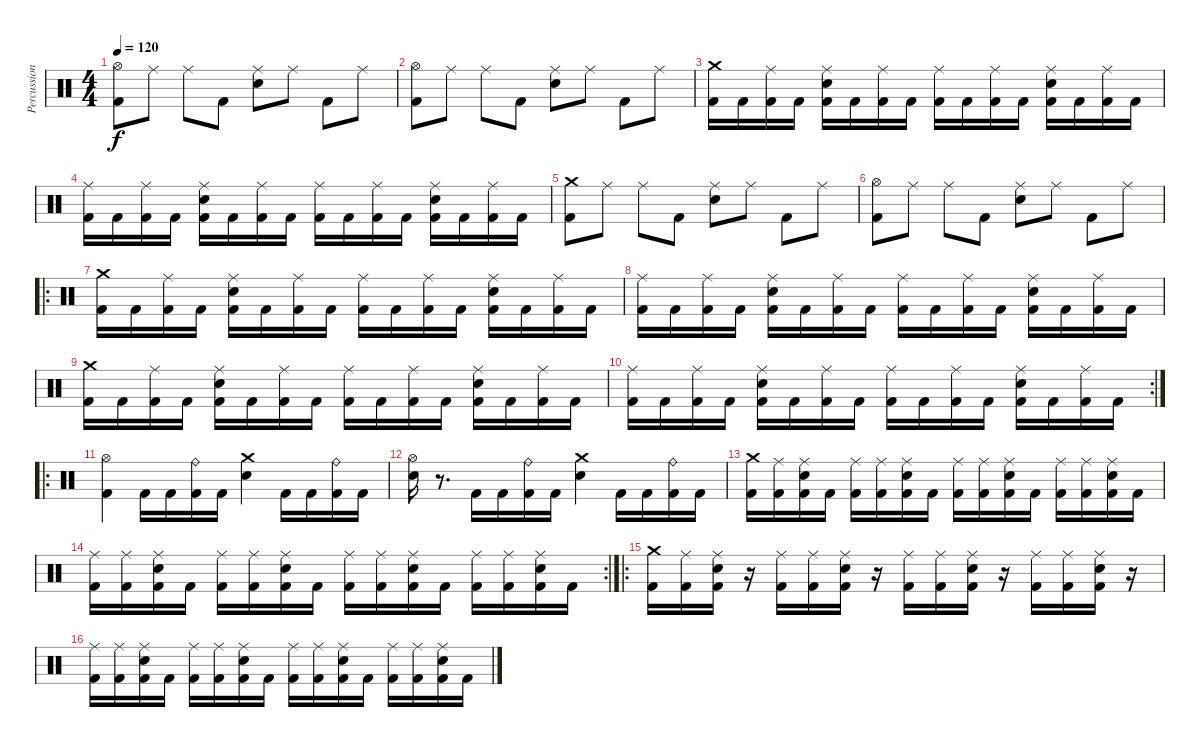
\track ("Percussions" "Percussion") {instrument percussion}
\staff {score}
\articulation defaults
\ts (4 4)
\tempo 120
\clef neutral
\ks c
("Kick (hit) 2" "Hi-Hat (open)").8{dy f} "Ride (middle)".8 "Ride (middle)".8 "Kick (hit) 2".8 ("Ride (middle)" "Electric Snare (hit)").8 "Ride (middle)".8 "Kick (hit) 2".8 "Ride (middle)".8 |
("Kick (hit) 2" "Hi-Hat (open)").8 "Ride (middle)".8 "Ride (middle)".8 "Kick (hit) 2".8 ("Ride (middle)" "Electric Snare (hit)").8 "Ride (middle)".8 "Kick (hit) 2".8 "Ride (middle)".8 |
("Kick (hit) 2" "Crash medium (hit)").16 "Kick (hit) 2".16 ("Kick (hit) 2" "Ride (middle)").16 "Kick (hit) 2".16 ("Kick (hit) 2" "Electric Snare (hit)" "Ride (middle)").16 "Kick (hit) 2".16 ("Kick (hit) 2" "Ride (middle)").16 "Kick (hit) 2".16 ("Kick (hit) 2" "Ride (middle)").16 "Kick (hit) 2".16 ("Kick (hit) 2" "Ride (middle)").16 "Kick (hit) 2".16 ("Kick (hit) 2" "Electric Snare (hit)" "Ride (middle)").16 "Kick (hit) 2".16 ("Kick (hit) 2" "Ride (middle)").16 "Kick (hit) 2".16 |
("Kick (hit) 2" "Ride (middle)").16 "Kick (hit) 2".16 ("Kick (hit) 2" "Ride (middle)").16 "Kick (hit) 2".16 ("Kick (hit) 2" "Electric Snare (hit)" "Ride (middle)").16 "Kick (hit) 2".16 ("Kick (hit) 2" "Ride (middle)").16 "Kick (hit) 2".16 ("Kick (hit) 2" "Ride (middle)").16 "Kick (hit) 2".16 ("Kick (hit) 2" "Ride (middle)").16 "Kick (hit) 2".16 ("Kick (hit) 2" "Electric Snare (hit)" "Ride (middle)").16 "Kick (hit) 2".16 ("Kick (hit) 2" "Ride (middle)").16 "Kick (hit) 2".16 |
("Kick (hit) 2" "Crash medium (hit)").8 "Ride (middle)".8 "Ride (middle)".8 "Kick (hit) 2".8 ("Ride (middle)" "Electric Snare (hit)").8 "Ride (middle)".8 "Kick (hit) 2".8 "Ride (middle)".8 |
("Kick (hit) 2" "Hi-Hat (open)").8 "Ride (middle)".8 "Ride (middle)".8 "Kick (hit) 2".8 ("Ride (middle)" "Electric Snare (hit)").8 "Ride (middle)".8 "Kick (hit) 2".8 "Ride (middle)".8 |
\ro
("Kick (hit) 2" "Crash medium (hit)").16 "Kick (hit) 2".16 ("Kick (hit) 2" "Ride (middle)").16 "Kick (hit) 2".16 ("Kick (hit) 2" "Electric Snare (hit)" "Ride (middle)").16 "Kick (hit) 2".16 ("Kick (hit) 2" "Ride (middle)").16 "Kick (hit) 2".16 ("Kick (hit) 2" "Ride (middle)").16 "Kick (hit) 2".16 ("Kick (hit) 2" "Ride (middle)").16 "Kick (hit) 2".16 ("Kick (hit) 2" "Electric Snare (hit)" "Ride (middle)").16 "Kick (hit) 2".16 ("Kick (hit) 2" "Ride (middle)").16 "Kick (hit) 2".16 |
("Kick (hit) 2" "Ride (middle)").16 "Kick (hit) 2".16 ("Kick (hit) 2" "Ride (middle)").16 "Kick (hit) 2".16 ("Kick (hit) 2" "Electric Snare (hit)" "Ride (middle)").16 "Kick (hit) 2".16 ("Kick (hit) 2" "Ride (middle)").16 "Kick (hit) 2".16 ("Kick (hit) 2" "Ride (middle)").16 "Kick (hit) 2".16 ("Kick (hit) 2" "Ride (middle)").16 "Kick (hit) 2".16 ("Kick (hit) 2" "Electric Snare (hit)" "Ride (middle)").16 "Kick (hit) 2".16 ("Kick (hit) 2" "Ride (middle)").16 "Kick (hit) 2".16 |
("Kick (hit) 2" "Crash medium (hit)").16 "Kick (hit) 2".16 ("Kick (hit) 2" "Ride (middle)").16 "Kick (hit) 2".16 ("Kick (hit) 2" "Electric Snare (hit)" "Ride (middle)").16 "Kick (hit) 2".16 ("Kick (hit) 2" "Ride (middle)").16 "Kick (hit) 2".16 ("Kick (hit) 2" "Ride (middle)").16 "Kick (hit) 2".16 ("Kick (hit) 2" "Ride (middle)").16 "Kick (hit) 2".16 ("Kick (hit) 2" "Electric Snare (hit)" "Ride (middle)").16 "Kick (hit) 2".16 ("Kick (hit) 2" "Ride (middle)").16 "Kick (hit) 2".16 |
\rc 2
("Kick (hit) 2" "Ride (middle)").16 "Kick (hit) 2".16 ("Kick (hit) 2" "Ride (middle)").16 "Kick (hit) 2".16 ("Kick (hit) 2" "Electric Snare (hit)" "Ride (middle)").16 "Kick (hit) 2".16 ("Kick (hit) 2" "Ride (middle)").16 "Kick (hit) 2".16 ("Kick (hit) 2" "Ride (middle)").16 "Kick (hit) 2".16 ("Kick (hit) 2" "Ride (middle)").16 "Kick (hit) 2".16 ("Kick (hit) 2" "Electric Snare (hit)" "Ride (middle)").16 "Kick (hit) 2".16 ("Kick (hit) 2" "Ride (middle)").16 "Kick (hit) 2".16 |
\ro
("Kick (hit) 2" "Hi-Hat (open)").4 "Kick (hit) 2".16 "Kick (hit) 2".16 ("Kick (hit) 2" "Ride (bell)").16 "Kick (hit) 2".16 ("Electric Snare (hit)" "Crash medium (hit)").4 "Kick (hit) 2".16 "Kick (hit) 2".16 ("Kick (hit) 2" "Ride (bell)").16 "Kick (hit) 2".16 |
("Electric Snare (hit)" "Hi-Hat (open)").16 r.8{d} "Kick (hit) 2".16 "Kick (hit) 2".16 ("Kick (hit) 2" "Ride (bell)").16 "Kick (hit) 2".16 ("Electric Snare (hit)" "Crash medium (hit)").4 "Kick (hit) 2".16 "Kick (hit) 2".16 ("Kick (hit) 2" "Ride (bell)").16 "Kick (hit) 2".16 |
("Kick (hit) 2" "Crash medium (hit)").16 ("Kick (hit) 2" "Ride (middle)").16 ("Kick (hit) 2" "Electric Snare (hit)" "Ride (middle)").16 "Kick (hit) 2".16 ("Kick (hit) 2" "Ride (middle)").16 ("Kick (hit) 2" "Ride (middle)").16 ("Kick (hit) 2" "Electric Snare (hit)" "Ride (middle)").16 "Kick (hit) 2".16 ("Kick (hit) 2" "Ride (middle)").16 ("Kick (hit) 2" "Ride (middle)").16 ("Kick (hit) 2" "Electric Snare (hit)" "Ride (middle)").16 "Kick (hit) 2".16 ("Kick (hit) 2" "Ride (middle)").16 ("Kick (hit) 2" "Ride (middle)").16 ("Kick (hit) 2" "Electric Snare (hit)" "Ride (middle)").16 "Kick (hit) 2".16 |
\rc 2
("Kick (hit) 2" "Ride (middle)").16 ("Kick (hit) 2" "Ride (middle)").16 ("Kick (hit) 2" "Electric Snare (hit)" "Ride (middle)").16 "Kick (hit) 2".16 ("Kick (hit) 2" "Ride (middle)").16 ("Kick (hit) 2" "Ride (middle)").16 ("Kick (hit) 2" "Electric Snare (hit)" "Ride (middle)").16 "Kick (hit) 2".16 ("Kick (hit) 2" "Ride (middle)").16 ("Kick (hit) 2" "Ride (middle)").16 ("Kick (hit) 2" "Electric Snare (hit)" "Ride (middle)").16 "Kick (hit) 2".16 ("Kick (hit) 2" "Ride (middle)").16 ("Kick (hit) 2" "Ride (middle)").16 ("Kick (hit) 2" "Electric Snare (hit)" "Ride (middle)").16 "Kick (hit) 2".16 |
\ro
("Kick (hit) 2" "Crash medium (hit)").16 ("Kick (hit) 2" "Ride (middle)").16 ("Kick (hit) 2" "Electric Snare (hit)" "Ride (middle)").16 r.16 ("Kick (hit) 2" "Ride (middle)").16 ("Kick (hit) 2" "Ride (middle)").16 ("Kick (hit) 2" "Electric Snare (hit)" "Ride (middle)").16 r.16 ("Kick (hit) 2" "Ride (middle)").16 ("Kick (hit) 2" "Ride (middle)").16 ("Kick (hit) 2" "Electric Snare (hit)" "Ride (middle)").16 r.16 ("Kick (hit) 2" "Ride (middle)").16 ("Kick (hit) 2" "Ride (middle)").16 ("Kick (hit) 2" "Electric Snare (hit)" "Ride (middle)").16 r.16 |
("Kick (hit) 2" "Ride (middle)").16 ("Kick (hit) 2" "Ride (middle)").16 ("Kick (hit) 2" "Electric Snare (hit)" "Ride (middle)").16 "Kick (hit) 2".16 ("Kick (hit) 2" "Ride (middle)").16 ("Kick (hit) 2" "Ride (middle)").16 ("Kick (hit) 2" "Electric Snare (hit)" "Ride (middle)").16 "Kick (hit) 2".16 ("Kick (hit) 2" "Ride (middle)").16 ("Kick (hit) 2" "Ride (middle)").16 ("Kick (hit) 2" "Electric Snare (hit)" "Ride (middle)").16 "Kick (hit) 2".16 ("Kick (hit) 2" "Ride (middle)").16 ("Kick (hit) 2" "Ride (middle)").16 ("Kick (hit) 2" "Electric Snare (hit)" "Ride (middle)").16 "Kick (hit) 2".16
